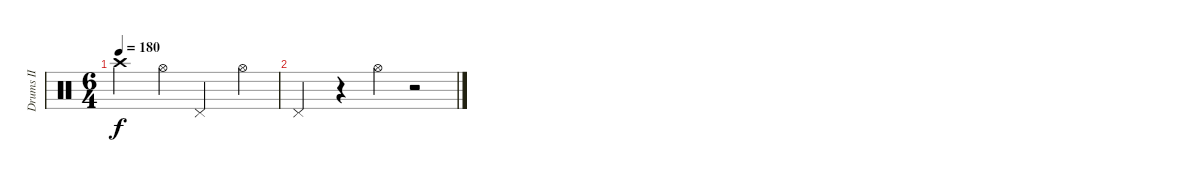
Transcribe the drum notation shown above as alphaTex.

\track ("Drums II" "Drums II") {instrument percussion}
\staff {score}
\articulation defaults
\ts (6 4)
\tempo 180
\clef neutral
\ks c "Crash high (hit)".2{dy f} "Hi-Hat (open)".4 "Pedal Hi-Hat (hit)".2 "Hi-Hat (open)".4
|
"Pedal Hi-Hat (hit)".2 r.4 "Hi-Hat (open)".4 r.2
